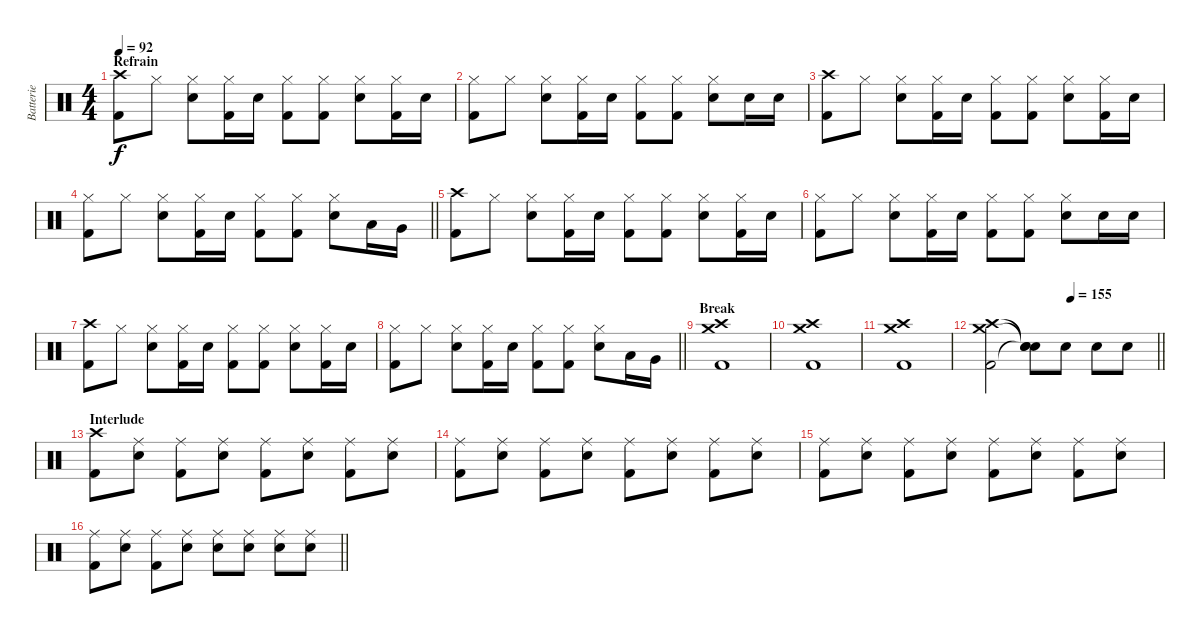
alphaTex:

\track ("Batterie" "Batterie") {instrument percussion}
\staff {score}
\articulation defaults
\ts (4 4)
\section ("" "Refrain")
\tempo 92
\clef neutral
\ks c
("Crash high (hit)" "Kick (hit) 2").8{dy f} "Hi-Hat (closed)".8 ("Hi-Hat (closed)" "Electric Snare (hit)").8 ("Hi-Hat (closed)" "Kick (hit) 2").16 "Electric Snare (hit)".16 ("Hi-Hat (closed)" "Kick (hit) 2").8 ("Hi-Hat (closed)" "Kick (hit) 2").8 ("Hi-Hat (closed)" "Electric Snare (hit)").8 ("Hi-Hat (closed)" "Kick (hit) 2").16 "Electric Snare (hit)".16 |
("Hi-Hat (closed)" "Kick (hit) 2").8 "Hi-Hat (closed)".8 ("Hi-Hat (closed)" "Electric Snare (hit)").8 ("Hi-Hat (closed)" "Kick (hit) 2").16 "Electric Snare (hit)".16 ("Hi-Hat (closed)" "Kick (hit) 2").8 ("Hi-Hat (closed)" "Kick (hit) 2").8 ("Hi-Hat (closed)" "Electric Snare (hit)").8 "Electric Snare (hit)".16 "Electric Snare (hit)".16 |
("Crash high (hit)" "Kick (hit) 2").8 "Hi-Hat (closed)".8 ("Hi-Hat (closed)" "Electric Snare (hit)").8 ("Hi-Hat (closed)" "Kick (hit) 2").16 "Electric Snare (hit)".16 ("Hi-Hat (closed)" "Kick (hit) 2").8 ("Hi-Hat (closed)" "Kick (hit) 2").8 ("Hi-Hat (closed)" "Electric Snare (hit)").8 ("Hi-Hat (closed)" "Kick (hit) 2").16 "Electric Snare (hit)".16 |
\barLineRight lightlight
("Hi-Hat (closed)" "Kick (hit) 2").8 "Hi-Hat (closed)".8 ("Hi-Hat (closed)" "Electric Snare (hit)").8 ("Hi-Hat (closed)" "Kick (hit) 2").16 "Electric Snare (hit)".16 ("Hi-Hat (closed)" "Kick (hit) 2").8 ("Hi-Hat (closed)" "Kick (hit) 2").8 ("Hi-Hat (closed)" "Electric Snare (hit)").8 "Low Tom (hit)".16 "Very Low Tom (hit)".16 |
("Crash high (hit)" "Kick (hit) 2").8 "Hi-Hat (closed)".8 ("Hi-Hat (closed)" "Electric Snare (hit)").8 ("Hi-Hat (closed)" "Kick (hit) 2").16 "Electric Snare (hit)".16 ("Hi-Hat (closed)" "Kick (hit) 2").8 ("Hi-Hat (closed)" "Kick (hit) 2").8 ("Hi-Hat (closed)" "Electric Snare (hit)").8 ("Hi-Hat (closed)" "Kick (hit) 2").16 "Electric Snare (hit)".16 |
("Hi-Hat (closed)" "Kick (hit) 2").8 "Hi-Hat (closed)".8 ("Hi-Hat (closed)" "Electric Snare (hit)").8 ("Hi-Hat (closed)" "Kick (hit) 2").16 "Electric Snare (hit)".16 ("Hi-Hat (closed)" "Kick (hit) 2").8 ("Hi-Hat (closed)" "Kick (hit) 2").8 ("Hi-Hat (closed)" "Electric Snare (hit)").8 "Electric Snare (hit)".16 "Electric Snare (hit)".16 |
("Crash high (hit)" "Kick (hit) 2").8 "Hi-Hat (closed)".8 ("Hi-Hat (closed)" "Electric Snare (hit)").8 ("Hi-Hat (closed)" "Kick (hit) 2").16 "Electric Snare (hit)".16 ("Hi-Hat (closed)" "Kick (hit) 2").8 ("Hi-Hat (closed)" "Kick (hit) 2").8 ("Hi-Hat (closed)" "Electric Snare (hit)").8 ("Hi-Hat (closed)" "Kick (hit) 2").16 "Electric Snare (hit)".16 |
\barLineRight lightlight
("Hi-Hat (closed)" "Kick (hit) 2").8 "Hi-Hat (closed)".8 ("Hi-Hat (closed)" "Electric Snare (hit)").8 ("Hi-Hat (closed)" "Kick (hit) 2").16 "Electric Snare (hit)".16 ("Hi-Hat (closed)" "Kick (hit) 2").8 ("Hi-Hat (closed)" "Kick (hit) 2").8 ("Hi-Hat (closed)" "Electric Snare (hit)").8 "Low Tom (hit)".16 "Very Low Tom (hit)".16 |
\section ("" "Break")
("Crash high (hit)" "Crash medium (hit)" "Kick (hit) 2").1 |
("Crash high (hit)" "Crash medium (hit)" "Kick (hit) 2").1 |
("Crash high (hit)" "Crash medium (hit)" "Kick (hit) 2").1 |
\tempo (155 0.5)
\barLineRight lightlight
("Crash high (hit)" "Crash medium (hit)" "Kick (hit) 2").2 ("Snare (hit)"{t} "Snare (hit)"{t} "Snare (hit)"{t}).8 "Electric Snare (hit)".8 "Electric Snare (hit)".8 "Electric Snare (hit)".8 |
\section ("" "Interlude")
("Crash high (hit)" "Kick (hit) 2").8 ("Ride (middle)" "Electric Snare (hit)").8 ("Ride (middle)" "Kick (hit) 2").8 ("Ride (middle)" "Electric Snare (hit)").8 ("Ride (middle)" "Kick (hit) 2").8 ("Ride (middle)" "Electric Snare (hit)").8 ("Ride (middle)" "Kick (hit) 2").8 ("Ride (middle)" "Electric Snare (hit)").8 |
("Ride (middle)" "Kick (hit) 2").8 ("Ride (middle)" "Electric Snare (hit)").8 ("Ride (middle)" "Kick (hit) 2").8 ("Ride (middle)" "Electric Snare (hit)").8 ("Ride (middle)" "Kick (hit) 2").8 ("Ride (middle)" "Electric Snare (hit)").8 ("Ride (middle)" "Kick (hit) 2").8 ("Ride (middle)" "Electric Snare (hit)").8 |
("Ride (middle)" "Kick (hit) 2").8 ("Ride (middle)" "Electric Snare (hit)").8 ("Ride (middle)" "Kick (hit) 2").8 ("Ride (middle)" "Electric Snare (hit)").8 ("Ride (middle)" "Kick (hit) 2").8 ("Ride (middle)" "Electric Snare (hit)").8 ("Ride (middle)" "Kick (hit) 2").8 ("Ride (middle)" "Electric Snare (hit)").8 |
\barLineRight lightlight
("Ride (middle)" "Kick (hit) 2").8 ("Ride (middle)" "Electric Snare (hit)").8 ("Ride (middle)" "Kick (hit) 2").8 ("Ride (middle)" "Electric Snare (hit)").8 ("Ride (middle)" "Electric Snare (hit)").8 ("Ride (middle)" "Electric Snare (hit)").8 ("Ride (middle)" "Electric Snare (hit)").8 ("Ride (middle)" "Electric Snare (hit)").8
